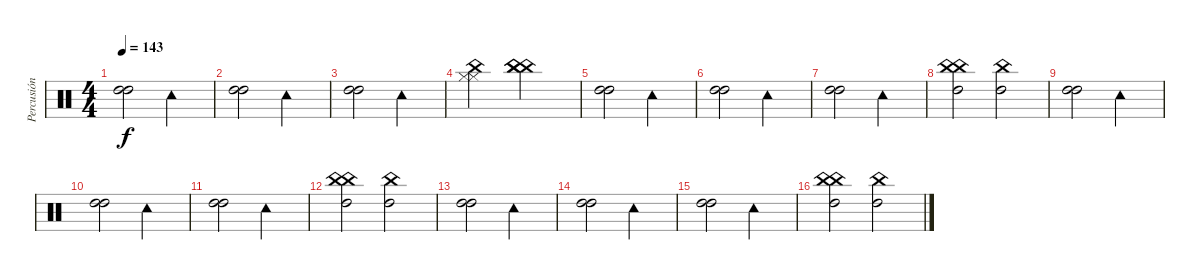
\track ("Percusión" "Percusión") {instrument percussion}
\staff {score}
\articulation defaults
\ts (4 4)
\tempo 143
\clef neutral
\ks c
("High Tom (hit)" "High Tom (hit)").2{dy f} "Tambourine (hit)".2 |
("High Tom (hit)" "High Tom (hit)").2 "Tambourine (hit)".2 |
("High Tom (hit)" "High Tom (hit)").2 "Tambourine (hit)".2 |
("Hi-Hat (closed)" "Hi-Hat (closed)" "China (hit)").2 ("China (hit)" "China (hit)" "China (hit)").2 |
("High Tom (hit)" "High Tom (hit)").2 "Tambourine (hit)".2 |
("High Tom (hit)" "High Tom (hit)").2 "Tambourine (hit)".2 |
("High Tom (hit)" "High Tom (hit)").2 "Tambourine (hit)".2 |
("China (hit)" "High Tom (hit)" "China (hit)").2 ("China (hit)" "High Tom (hit)").2 |
("High Tom (hit)" "High Tom (hit)").2 "Tambourine (hit)".2 |
("High Tom (hit)" "High Tom (hit)").2 "Tambourine (hit)".2 |
("High Tom (hit)" "High Tom (hit)").2 "Tambourine (hit)".2 |
("China (hit)" "High Tom (hit)" "China (hit)").2 ("China (hit)" "High Tom (hit)").2 |
("High Tom (hit)" "High Tom (hit)").2 "Tambourine (hit)".2 |
("High Tom (hit)" "High Tom (hit)").2 "Tambourine (hit)".2 |
("High Tom (hit)" "High Tom (hit)").2 "Tambourine (hit)".2 |
("China (hit)" "High Tom (hit)" "China (hit)").2 ("China (hit)" "High Tom (hit)").2
